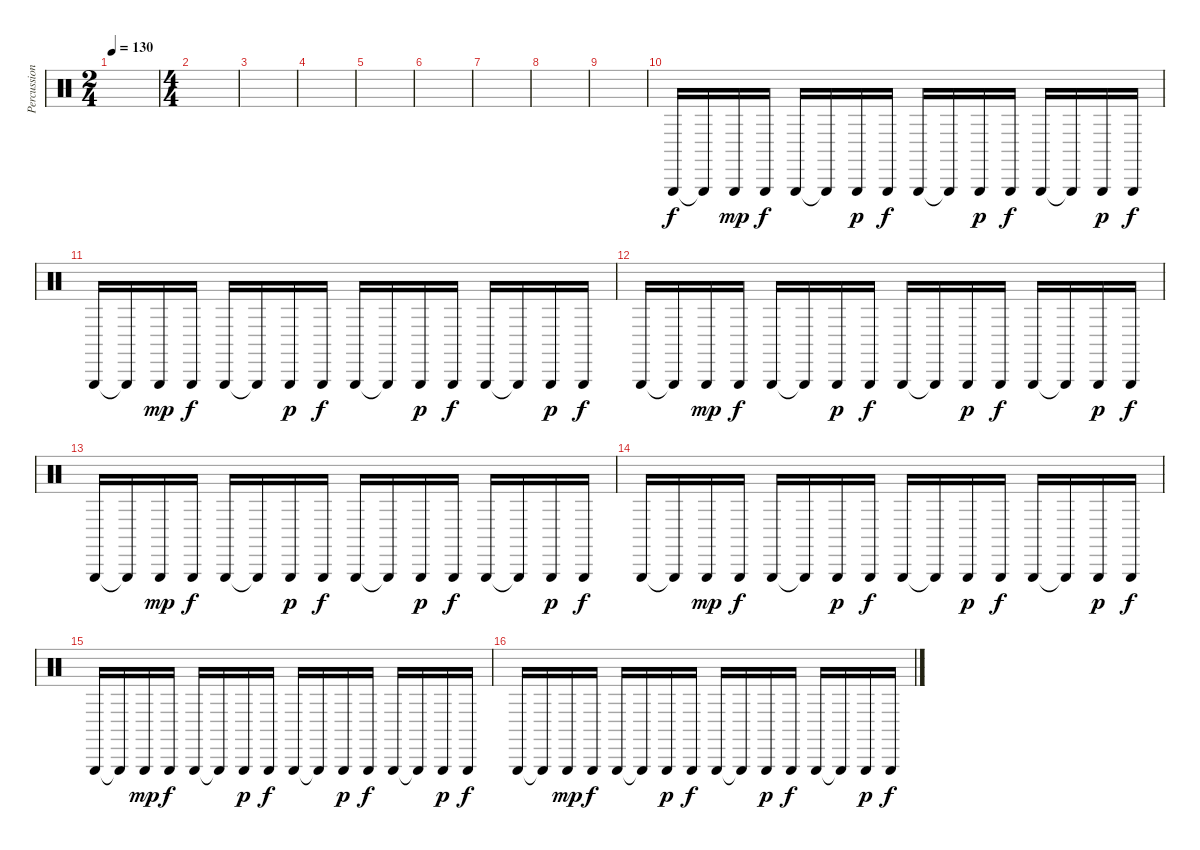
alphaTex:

\track ("Percussion" "Percussion") {instrument percussion}
\staff {score}
\articulation defaults
\ts (2 4)
\tempo 130
\clef neutral
\ks c
|
\ts (4 4)
|
|
|
|
|
|
|
|
"Triangle (hit)".16 "Triangle (hit)"{t}.16 "Triangle (hit)".16{dy mp} "Triangle (hit)".16{dy f} "Triangle (hit)".16 "Triangle (hit)"{t}.16 "Triangle (hit)".16{dy p} "Triangle (hit)".16{dy f} "Triangle (hit)".16 "Triangle (hit)"{t}.16 "Triangle (hit)".16{dy p} "Triangle (hit)".16{dy f} "Triangle (hit)".16 "Triangle (hit)"{t}.16 "Triangle (hit)".16{dy p} "Triangle (hit)".16{dy f} |
"Triangle (hit)".16 "Triangle (hit)"{t}.16 "Triangle (hit)".16{dy mp} "Triangle (hit)".16{dy f} "Triangle (hit)".16 "Triangle (hit)"{t}.16 "Triangle (hit)".16{dy p} "Triangle (hit)".16{dy f} "Triangle (hit)".16 "Triangle (hit)"{t}.16 "Triangle (hit)".16{dy p} "Triangle (hit)".16{dy f} "Triangle (hit)".16 "Triangle (hit)"{t}.16 "Triangle (hit)".16{dy p} "Triangle (hit)".16{dy f} |
"Triangle (hit)".16 "Triangle (hit)"{t}.16 "Triangle (hit)".16{dy mp} "Triangle (hit)".16{dy f} "Triangle (hit)".16 "Triangle (hit)"{t}.16 "Triangle (hit)".16{dy p} "Triangle (hit)".16{dy f} "Triangle (hit)".16 "Triangle (hit)"{t}.16 "Triangle (hit)".16{dy p} "Triangle (hit)".16{dy f} "Triangle (hit)".16 "Triangle (hit)"{t}.16 "Triangle (hit)".16{dy p} "Triangle (hit)".16{dy f} |
"Triangle (hit)".16 "Triangle (hit)"{t}.16 "Triangle (hit)".16{dy mp} "Triangle (hit)".16{dy f} "Triangle (hit)".16 "Triangle (hit)"{t}.16 "Triangle (hit)".16{dy p} "Triangle (hit)".16{dy f} "Triangle (hit)".16 "Triangle (hit)"{t}.16 "Triangle (hit)".16{dy p} "Triangle (hit)".16{dy f} "Triangle (hit)".16 "Triangle (hit)"{t}.16 "Triangle (hit)".16{dy p} "Triangle (hit)".16{dy f} |
"Triangle (hit)".16 "Triangle (hit)"{t}.16 "Triangle (hit)".16{dy mp} "Triangle (hit)".16{dy f} "Triangle (hit)".16 "Triangle (hit)"{t}.16 "Triangle (hit)".16{dy p} "Triangle (hit)".16{dy f} "Triangle (hit)".16 "Triangle (hit)"{t}.16 "Triangle (hit)".16{dy p} "Triangle (hit)".16{dy f} "Triangle (hit)".16 "Triangle (hit)"{t}.16 "Triangle (hit)".16{dy p} "Triangle (hit)".16{dy f} |
"Triangle (hit)".16 "Triangle (hit)"{t}.16 "Triangle (hit)".16{dy mp} "Triangle (hit)".16{dy f} "Triangle (hit)".16 "Triangle (hit)"{t}.16 "Triangle (hit)".16{dy p} "Triangle (hit)".16{dy f} "Triangle (hit)".16 "Triangle (hit)"{t}.16 "Triangle (hit)".16{dy p} "Triangle (hit)".16{dy f} "Triangle (hit)".16 "Triangle (hit)"{t}.16 "Triangle (hit)".16{dy p} "Triangle (hit)".16{dy f} |
"Triangle (hit)".16 "Triangle (hit)"{t}.16 "Triangle (hit)".16{dy mp} "Triangle (hit)".16{dy f} "Triangle (hit)".16 "Triangle (hit)"{t}.16 "Triangle (hit)".16{dy p} "Triangle (hit)".16{dy f} "Triangle (hit)".16 "Triangle (hit)"{t}.16 "Triangle (hit)".16{dy p} "Triangle (hit)".16{dy f} "Triangle (hit)".16 "Triangle (hit)"{t}.16 "Triangle (hit)".16{dy p} "Triangle (hit)".16{dy f}
